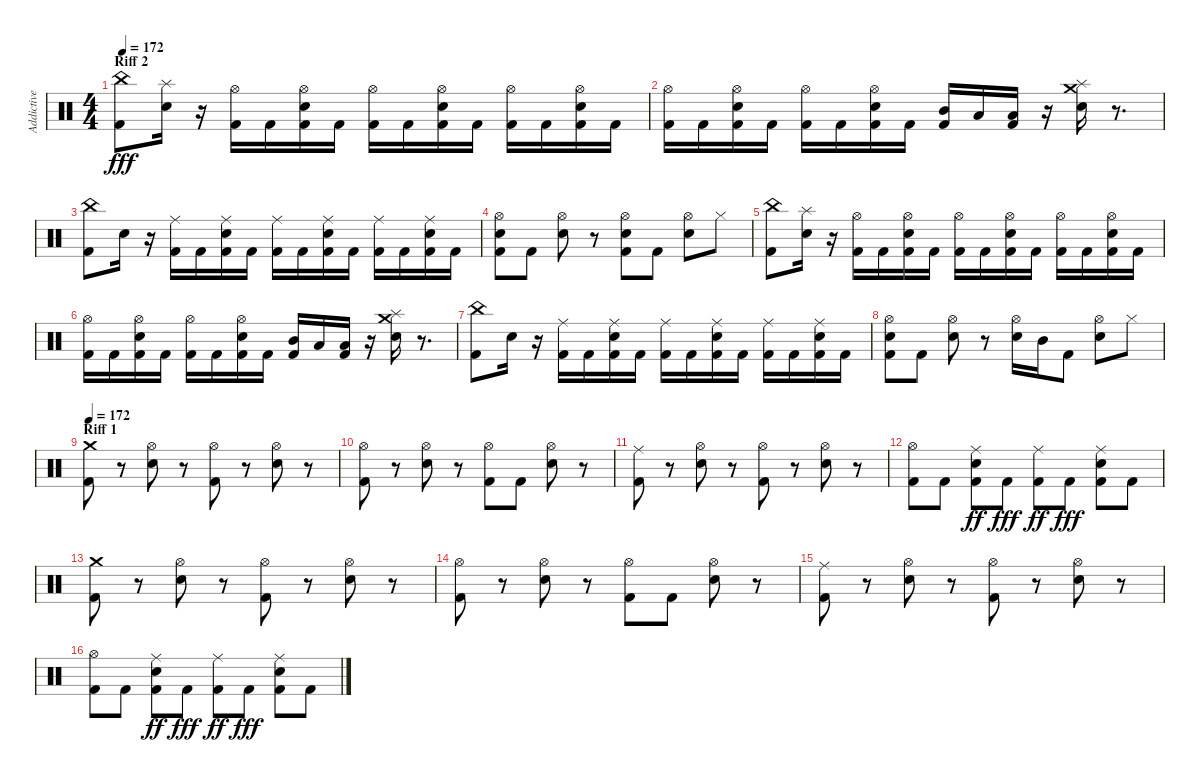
\track ("Addictive" "Addictive") {instrument percussion}
\staff {score}
\articulation defaults
\ts (4 4)
\section ("" "Riff 2")
\tempo 172
\clef neutral
\ks c
("Kick (hit) 2" "China (hit)").8{dy fff} ("Snare (hit) 2" "Splash (hit)").16 r.16 ("Kick (hit) 2" "Hi-Hat (open)").16 "Kick (hit) 2".16 ("Kick (hit) 2" "Snare (hit) 2" "Hi-Hat (open)").16 "Kick (hit) 2".16 ("Kick (hit) 2" "Hi-Hat (open)").16 "Kick (hit) 2".16 ("Kick (hit) 2" "Snare (hit) 2" "Hi-Hat (open)").16 "Kick (hit) 2".16 ("Kick (hit) 2" "Hi-Hat (open)").16 "Kick (hit) 2".16 ("Kick (hit) 2" "Snare (hit) 2" "Hi-Hat (open)").16 "Kick (hit) 2".16 |
("Kick (hit) 2" "Hi-Hat (open)").16 "Kick (hit) 2".16 ("Kick (hit) 2" "Snare (hit) 2" "Hi-Hat (open)").16 "Kick (hit) 2".16 ("Kick (hit) 2" "Hi-Hat (open)").16 "Kick (hit) 2".16 ("Kick (hit) 2" "Snare (hit) 2" "Hi-Hat (open)").16 "Kick (hit) 2".16 ("Kick (hit) 2" "Mid Tom (hit)").16 "Low Tom (hit)".16 ("Kick (hit) 2" "Low Tom (hit)").16 r.16 ("Snare (hit) 2" "Splash (hit)" "Crash medium (hit)").16 r.8{d} |
("Kick (hit) 2" "China (hit)").8 "Snare (hit) 2".16 r.16 ("Kick (hit) 2" "Ride (middle)").16 "Kick (hit) 2".16 ("Kick (hit) 2" "Snare (hit) 2" "Ride (middle)").16 "Kick (hit) 2".16 ("Kick (hit) 2" "Ride (middle)").16 "Kick (hit) 2".16 ("Kick (hit) 2" "Snare (hit) 2" "Ride (middle)").16 "Kick (hit) 2".16 ("Kick (hit) 2" "Ride (middle)").16 "Kick (hit) 2".16 ("Kick (hit) 2" "Snare (hit) 2" "Ride (middle)").16 "Kick (hit) 2".16 |
("Kick (hit) 2" "Snare (hit) 2" "Hi-Hat (open)").8 "Kick (hit) 2".8 ("Snare (hit) 2" "Hi-Hat (open)").8 r.8 ("Kick (hit) 2" "Snare (hit) 2" "Hi-Hat (open)").8 "Kick (hit) 2".8 ("Snare (hit) 2" "Hi-Hat (open)").8 "Hi-Hat (closed)".8 |
("Kick (hit) 2" "China (hit)").8 ("Snare (hit) 2" "Splash (hit)").16 r.16 ("Kick (hit) 2" "Hi-Hat (open)").16 "Kick (hit) 2".16 ("Kick (hit) 2" "Snare (hit) 2" "Hi-Hat (open)").16 "Kick (hit) 2".16 ("Kick (hit) 2" "Hi-Hat (open)").16 "Kick (hit) 2".16 ("Kick (hit) 2" "Snare (hit) 2" "Hi-Hat (open)").16 "Kick (hit) 2".16 ("Kick (hit) 2" "Hi-Hat (open)").16 "Kick (hit) 2".16 ("Kick (hit) 2" "Snare (hit) 2" "Hi-Hat (open)").16 "Kick (hit) 2".16 |
("Kick (hit) 2" "Hi-Hat (open)").16 "Kick (hit) 2".16 ("Kick (hit) 2" "Snare (hit) 2" "Hi-Hat (open)").16 "Kick (hit) 2".16 ("Kick (hit) 2" "Hi-Hat (open)").16 "Kick (hit) 2".16 ("Kick (hit) 2" "Snare (hit) 2" "Hi-Hat (open)").16 "Kick (hit) 2".16 ("Kick (hit) 2" "Mid Tom (hit)").16 "Low Tom (hit)".16 ("Kick (hit) 2" "Low Tom (hit)").16 r.16 ("Snare (hit) 2" "Splash (hit)" "Crash medium (hit)").16 r.8{d} |
("Kick (hit) 2" "China (hit)").8 "Snare (hit) 2".16 r.16 ("Kick (hit) 2" "Ride (middle)").16 "Kick (hit) 2".16 ("Kick (hit) 2" "Snare (hit) 2" "Ride (middle)").16 "Kick (hit) 2".16 ("Kick (hit) 2" "Ride (middle)").16 "Kick (hit) 2".16 ("Kick (hit) 2" "Snare (hit) 2" "Ride (middle)").16 "Kick (hit) 2".16 ("Kick (hit) 2" "Ride (middle)").16 "Kick (hit) 2".16 ("Kick (hit) 2" "Snare (hit) 2" "Ride (middle)").16 "Kick (hit) 2".16 |
("Kick (hit) 2" "Snare (hit) 2" "Hi-Hat (open)").8 "Kick (hit) 2".8 ("Snare (hit) 2" "Hi-Hat (open)").8 r.8 ("Snare (hit) 2" "Hi-Hat (open)").16 "Mid Tom (hit)".16 "Kick (hit) 2".8 ("Snare (hit) 2" "Hi-Hat (open)").8 "Hi-Hat (closed)".8 |
\section ("" "Riff 1")
\tempo 172
("Kick (hit) 2" "Crash medium (hit)").8 r.8 ("Snare (hit) 2" "Hi-Hat (open)").8 r.8 ("Kick (hit) 2" "Hi-Hat (open)").8 r.8 ("Snare (hit) 2" "Hi-Hat (open)").8 r.8 |
("Kick (hit) 2" "Hi-Hat (open)").8 r.8 ("Snare (hit) 2" "Hi-Hat (open)").8 r.8 ("Kick (hit) 2" "Hi-Hat (open)").8 "Kick (hit) 2".8 ("Snare (hit) 2" "Hi-Hat (open)").8 r.8 |
("Kick (hit) 2" "Ride (middle)").8 r.8 ("Snare (hit) 2" "Hi-Hat (open)").8 r.8 ("Kick (hit) 2" "Hi-Hat (open)").8 r.8 ("Snare (hit) 2" "Hi-Hat (open)").8 r.8 |
("Kick (hit) 2" "Hi-Hat (open)").8 "Kick (hit) 2".8 ("Kick (hit) 2" "Snare (hit) 2" "Ride (middle)").8{dy ff} "Kick (hit) 2".8{dy fff} ("Kick (hit) 2" "Ride (middle)").8{dy ff} "Kick (hit) 2".8{dy fff} ("Kick (hit) 2" "Snare (hit) 2" "Ride (middle)").8 "Kick (hit) 2".8 |
("Kick (hit) 2" "Crash medium (hit)").8 r.8 ("Snare (hit) 2" "Hi-Hat (open)").8 r.8 ("Kick (hit) 2" "Hi-Hat (open)").8 r.8 ("Snare (hit) 2" "Hi-Hat (open)").8 r.8 |
("Kick (hit) 2" "Hi-Hat (open)").8 r.8 ("Snare (hit) 2" "Hi-Hat (open)").8 r.8 ("Kick (hit) 2" "Hi-Hat (open)").8 "Kick (hit) 2".8 ("Snare (hit) 2" "Hi-Hat (open)").8 r.8 |
("Kick (hit) 2" "Ride (middle)").8 r.8 ("Snare (hit) 2" "Hi-Hat (open)").8 r.8 ("Kick (hit) 2" "Hi-Hat (open)").8 r.8 ("Snare (hit) 2" "Hi-Hat (open)").8 r.8 |
("Kick (hit) 2" "Hi-Hat (open)").8 "Kick (hit) 2".8 ("Kick (hit) 2" "Snare (hit) 2" "Ride (middle)").8{dy ff} "Kick (hit) 2".8{dy fff} ("Kick (hit) 2" "Ride (middle)").8{dy ff} "Kick (hit) 2".8{dy fff} ("Kick (hit) 2" "Snare (hit) 2" "Ride (middle)").8 "Kick (hit) 2".8
